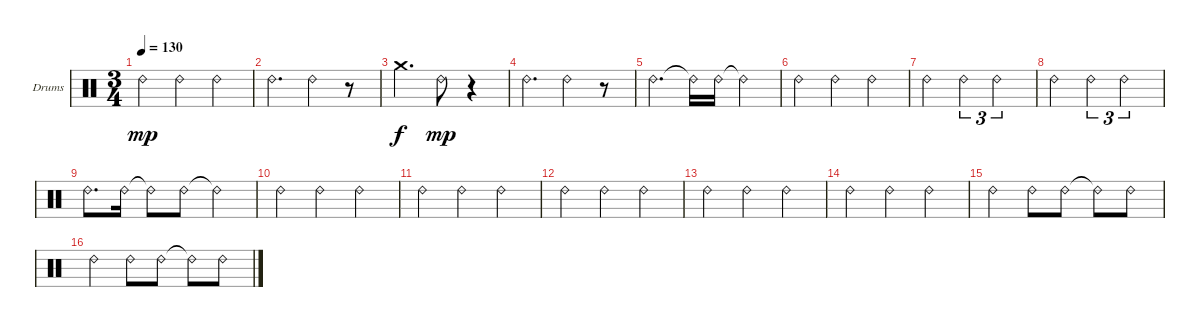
\bracketExtendMode groupsimilarinstruments
\firstSystemTrackNameOrientation horizontal
\otherSystemsTrackNameOrientation horizontal
\track ("OH" "Drums") {instrument percussion}
\staff {score}
\articulation defaults
\ts (3 4)
\tempo 130
\clef neutral
\ks c "Ride (bell) 2"{t}.4{dy mp} "Ride (bell) 2".4 "Ride (bell) 2".4
|
\scale
0.379085 "Ride (bell) 2".4{d} "Ride (bell) 2".4 r.8 |
\scale
0.310458 "Crash medium (hit)".4{d dy f} "Ride (bell) 2".8{dy mp} r.4 |
\scale
0.310458 "Ride (bell) 2".4{d} "Ride (bell) 2".4 r.8 |
"Ride (bell) 2".4{d} "Ride (bell) 2"{t}.16 "Ride (bell) 2".16 "Ride (bell) 2"{t}.4 |
"Ride (bell) 2".4 "Ride (bell) 2".4 "Ride (bell) 2".4 |
"Ride (bell) 2".4 "Ride (bell) 2".4{tu (3 2)} "Ride (bell) 2".2{tu (3 2)} |
"Ride (bell) 2".4 "Ride (bell) 2".4{tu (3 2)} "Ride (bell) 2".2{tu (3 2)} |
"Ride (bell) 2".8{d} "Ride (bell) 2".16 "Ride (bell) 2"{t}.8 "Ride (bell) 2".8 "Ride (bell) 2"{t}.4 |
"Ride (bell) 2".4 "Ride (bell) 2".4 "Ride (bell) 2".4 |
"Ride (bell) 2".4 "Ride (bell) 2".4 "Ride (bell) 2".4 |
"Ride (bell) 2".4 "Ride (bell) 2".4 "Ride (bell) 2".4 |
"Ride (bell) 2".4 "Ride (bell) 2".4 "Ride (bell) 2".4 |
"Ride (bell) 2".4 "Ride (bell) 2".4 "Ride (bell) 2".4 |
"Ride (bell) 2".4 "Ride (bell) 2".8 "Ride (bell) 2".8 "Ride (bell) 2"{t}.8 "Ride (bell) 2".8 |
"Ride (bell) 2".4 "Ride (bell) 2".8 "Ride (bell) 2".8 "Ride (bell) 2"{t}.8 "Ride (bell) 2".8
